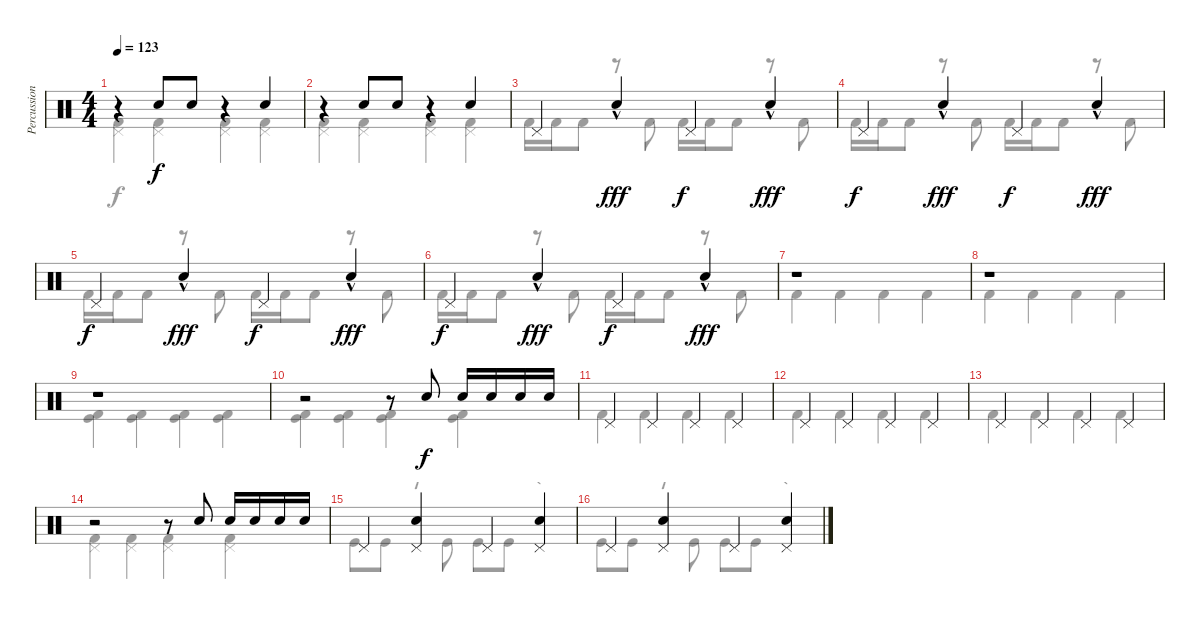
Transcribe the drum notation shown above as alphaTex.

\track ("Percussion" "Percussion") {instrument percussion}
\staff {score}
\articulation defaults
\voice
\ts (4 4)
\tempo 123
\clef neutral
\ks c
r.4{dy f} "Hand Clap (hit)".8 "Hand Clap (hit)".8 r.4 "Hand Clap (hit)".4 |
r.4 "Hand Clap (hit)".8 "Hand Clap (hit)".8 r.4 "Hand Clap (hit)".4 |
"Pedal Hi-Hat (hit)".4 "Electric Snare (hit)"{hac}.4{dy fff} "Pedal Hi-Hat (hit)".4{dy f} "Electric Snare (hit)"{hac}.4{dy fff} |
"Pedal Hi-Hat (hit)".4{dy f} "Electric Snare (hit)"{hac}.4{dy fff} "Pedal Hi-Hat (hit)".4{dy f} "Electric Snare (hit)"{hac}.4{dy fff} |
"Pedal Hi-Hat (hit)".4{dy f} "Electric Snare (hit)"{hac}.4{dy fff} "Pedal Hi-Hat (hit)".4{dy f} "Electric Snare (hit)"{hac}.4{dy fff} |
"Pedal Hi-Hat (hit)".4{dy f} "Electric Snare (hit)"{hac}.4{dy fff} "Pedal Hi-Hat (hit)".4{dy f} "Electric Snare (hit)"{hac}.4{dy fff} |
r.1 |
r.1 |
r.1 |
r.2 r.8 "Electric Snare (hit)".8{dy f} "Electric Snare (hit)".16 "Electric Snare (hit)".16 "Electric Snare (hit)".16 "Electric Snare (hit)".16 |
"Pedal Hi-Hat (hit)".4 "Pedal Hi-Hat (hit)".4 "Pedal Hi-Hat (hit)".4 "Pedal Hi-Hat (hit)".4 |
"Pedal Hi-Hat (hit)".4 "Pedal Hi-Hat (hit)".4 "Pedal Hi-Hat (hit)".4 "Pedal Hi-Hat (hit)".4 |
"Pedal Hi-Hat (hit)".4 "Pedal Hi-Hat (hit)".4 "Pedal Hi-Hat (hit)".4 "Pedal Hi-Hat (hit)".4 |
r.2 r.8 "Electric Snare (hit)".8 "Electric Snare (hit)".16 "Electric Snare (hit)".16 "Electric Snare (hit)".16 "Electric Snare (hit)".16 |
"Pedal Hi-Hat (hit)".4 ("Electric Snare (hit)" "Pedal Hi-Hat (hit)").4 "Pedal Hi-Hat (hit)".4 ("Electric Snare (hit)" "Pedal Hi-Hat (hit)").4 |
"Pedal Hi-Hat (hit)".4 ("Electric Snare (hit)" "Pedal Hi-Hat (hit)").4 "Pedal Hi-Hat (hit)".4 ("Electric Snare (hit)" "Pedal Hi-Hat (hit)").4
\voice
\clef neutral
\ottava regular
\simile none
\ks c
("Pedal Hi-Hat (hit)" "Kick (hit) 2").4{dy f} ("Pedal Hi-Hat (hit)" "Kick (hit) 2").4 ("Pedal Hi-Hat (hit)" "Kick (hit) 2").4 ("Pedal Hi-Hat (hit)" "Kick (hit) 2").4 |
("Pedal Hi-Hat (hit)" "Kick (hit) 2").4 ("Pedal Hi-Hat (hit)" "Kick (hit) 2").4 ("Pedal Hi-Hat (hit)" "Kick (hit) 2").4 ("Pedal Hi-Hat (hit)" "Kick (hit) 2").4 |
"Kick (hit) 2".16 "Kick (hit) 2".16 "Kick (hit) 2".8 r.8 "Kick (hit) 2".8 "Kick (hit) 2".16 "Kick (hit) 2".16 "Kick (hit) 2".8 r.8 "Kick (hit) 2".8 |
"Kick (hit) 2".16 "Kick (hit) 2".16 "Kick (hit) 2".8 r.8 "Kick (hit) 2".8 "Kick (hit) 2".16 "Kick (hit) 2".16 "Kick (hit) 2".8 r.8 "Kick (hit) 2".8 |
"Kick (hit) 2".16 "Kick (hit) 2".16 "Kick (hit) 2".8 r.8 "Kick (hit) 2".8 "Kick (hit) 2".16 "Kick (hit) 2".16 "Kick (hit) 2".8 r.8 "Kick (hit) 2".8 |
"Kick (hit) 2".16 "Kick (hit) 2".16 "Kick (hit) 2".8 r.8 "Kick (hit) 2".8 "Kick (hit) 2".16 "Kick (hit) 2".16 "Kick (hit) 2".8 r.8 "Kick (hit) 2".8 |
"Kick (hit) 2".4 "Kick (hit) 2".4 "Kick (hit) 2".4 "Kick (hit) 2".4 |
"Kick (hit) 2".4 "Kick (hit) 2".4 "Kick (hit) 2".4 "Kick (hit) 2".4 |
("Kick (hit)" "Kick (hit) 2").4 ("Kick (hit)" "Kick (hit) 2").4 ("Kick (hit)" "Kick (hit) 2").4 ("Kick (hit)" "Kick (hit) 2").4 |
("Kick (hit)" "Kick (hit) 2").4 ("Kick (hit)" "Kick (hit) 2").4 ("Kick (hit)" "Kick (hit) 2").4 ("Kick (hit)" "Kick (hit) 2").4 |
"Kick (hit) 2".4 "Kick (hit) 2".4 "Kick (hit) 2".4 "Kick (hit) 2".4 |
"Kick (hit) 2".4 "Kick (hit) 2".4 "Kick (hit) 2".4 "Kick (hit) 2".4 |
"Kick (hit) 2".4 "Kick (hit) 2".4 "Kick (hit) 2".4 "Kick (hit) 2".4 |
("Pedal Hi-Hat (hit)" "Kick (hit) 2").4 ("Pedal Hi-Hat (hit)" "Kick (hit) 2").4 ("Pedal Hi-Hat (hit)" "Kick (hit) 2").4 ("Pedal Hi-Hat (hit)" "Kick (hit) 2").4 |
"Kick (hit)".8 "Kick (hit)".8 r.8 "Kick (hit)".8 "Kick (hit)".8 "Kick (hit)".8 r.4 |
"Kick (hit)".8 "Kick (hit)".8 r.8 "Kick (hit)".8 "Kick (hit)".8 "Kick (hit)".8 r.4
